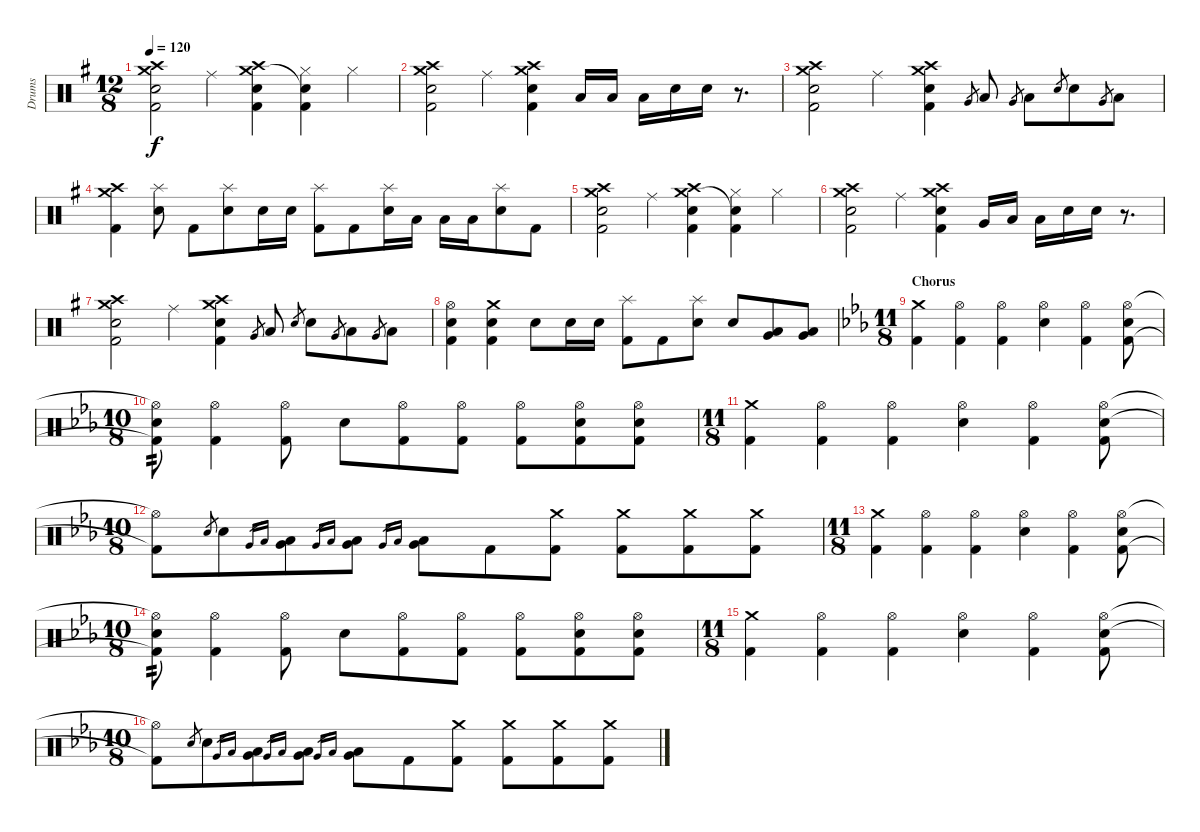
\track ("Drums" "Drums") {instrument percussion}
\staff {score}
\articulation defaults
\ts (12 8)
\tempo 120
\clef neutral
\ks g
("Crash high (hit)" "Crash medium (hit)" "Electric Snare (hit)" "Kick (hit) 2").2{dy f} "Ride (middle)".4 ("Crash high (hit)" "Crash medium (hit)" "Electric Snare (hit)" "Kick (hit) 2").4 ("Hi-Hat (closed)" "Electric Snare (hit)"{t} "Kick (hit) 2").4 "Hi-Hat (closed)".4 |
("Crash high (hit)" "Crash medium (hit)" "Electric Snare (hit)" "Kick (hit) 2").2 "Ride (middle)".4 ("Crash high (hit)" "Crash medium (hit)" "Electric Snare (hit)" "Kick (hit) 2").4 "Low Tom (hit)".16 "Low Tom (hit)".16 "Low Tom (hit)".16 "Electric Snare (hit)".16 "Electric Snare (hit)".16 r.8{d} |
("Crash high (hit)" "Crash medium (hit)" "Electric Snare (hit)" "Kick (hit) 2").2 "Ride (middle)".4 ("Crash high (hit)" "Crash medium (hit)" "Electric Snare (hit)" "Kick (hit) 2").4 "Very Low Tom (hit)".8{gr} "Low Tom (hit)".8 "Very Low Tom (hit)".8{gr} "Low Tom (hit)".8 "Electric Snare (hit)".8{gr} "Electric Snare (hit)".8 "Very Low Tom (hit)".8{gr} "Low Tom (hit)".8 |
("Crash medium (hit)" "Crash high (hit)" "Kick (hit) 2").4 ("Splash (hit)" "Electric Snare (hit)").8 "Kick (hit) 2".8 ("Splash (hit)" "Electric Snare (hit)").8 "Electric Snare (hit)".16 "Electric Snare (hit)".16 ("Splash (hit)" "Kick (hit) 2").8 "Kick (hit) 2".8 ("Splash (hit)" "Electric Snare (hit)").16 "Low Tom (hit)".16 "Low Tom (hit)".16 "Low Tom (hit)".16 ("Splash (hit)" "Electric Snare (hit)").8 "Kick (hit) 2".8 |
("Crash high (hit)" "Crash medium (hit)" "Electric Snare (hit)" "Kick (hit) 2").2 "Ride (middle)".4 ("Crash high (hit)" "Crash medium (hit)" "Electric Snare (hit)" "Kick (hit) 2").4 ("Hi-Hat (closed)" "Electric Snare (hit)"{t} "Kick (hit) 2").4 "Hi-Hat (closed)".4 |
("Crash high (hit)" "Crash medium (hit)" "Electric Snare (hit)" "Kick (hit) 2").2 "Ride (middle)".4 ("Crash high (hit)" "Crash medium (hit)" "Electric Snare (hit)" "Kick (hit) 2").4 "Very Low Tom (hit)".16 "Low Tom (hit)".16 "Low Tom (hit)".16 "Electric Snare (hit)".16 "Electric Snare (hit)".16 r.8{d} |
("Crash high (hit)" "Crash medium (hit)" "Electric Snare (hit)" "Kick (hit) 2").2 "Ride (middle)".4 ("Crash high (hit)" "Crash medium (hit)" "Electric Snare (hit)" "Kick (hit) 2").4 "Very Low Tom (hit)".8{gr} "Low Tom (hit)".8 "Electric Snare (hit)".8{gr} "Electric Snare (hit)".8 "Very Low Tom (hit)".8{gr} "Low Tom (hit)".8 "Very Low Tom (hit)".8{gr} "Low Tom (hit)".8 |
("Hi-Hat (open)" "Electric Snare (hit)" "Kick (hit) 2").4 ("Crash medium (hit)" "Electric Snare (hit)" "Kick (hit) 2").4 "Electric Snare (hit)".8 "Electric Snare (hit)".16 "Electric Snare (hit)".16 ("Splash (hit)" "Kick (hit) 2").8 "Kick (hit) 2".8 ("Splash (hit)" "Electric Snare (hit)").8 "Electric Snare (hit)".8 ("Low Tom (hit)" "Very Low Tom (hit)").8 ("Low Tom (hit)" "Very Low Tom (hit)").8 |
\ts (11 8)
\section ("" "Chorus")
\ks eb
("Crash medium (hit)" "Kick (hit) 2").4 ("Hi-Hat (open)" "Kick (hit) 2").4 ("Hi-Hat (open)" "Kick (hit) 2").4 ("Hi-Hat (open)" "Electric Snare (hit)").4 ("Hi-Hat (open)" "Kick (hit) 2").4 ("Hi-Hat (open)" "Electric Snare (hit)" "Kick (hit) 2").8 |
\ts (10 8)
("Hi-Hat (open)"{t} "Electric Snare (hit)" "Kick (hit) 2"{t}).8{tp 2} ("Hi-Hat (open)" "Kick (hit) 2").4 ("Hi-Hat (open)" "Kick (hit) 2").8 "Electric Snare (hit)".8 ("Hi-Hat (open)" "Kick (hit) 2").8 ("Hi-Hat (open)" "Kick (hit) 2").8 ("Hi-Hat (open)" "Kick (hit) 2").8 ("Hi-Hat (open)" "Electric Snare (hit)" "Kick (hit) 2").8 ("Hi-Hat (open)" "Electric Snare (hit)" "Kick (hit) 2").8 |
\ts (11 8)
("Crash medium (hit)" "Kick (hit) 2").4 ("Hi-Hat (open)" "Kick (hit) 2").4 ("Hi-Hat (open)" "Kick (hit) 2").4 ("Hi-Hat (open)" "Electric Snare (hit)").4 ("Hi-Hat (open)" "Kick (hit) 2").4 ("Hi-Hat (open)" "Electric Snare (hit)" "Kick (hit) 2").8 |
\ts (10 8)
("Hi-Hat (open)"{t} "Kick (hit) 2"{t}).8 "Electric Snare (hit)".8{gr} "Electric Snare (hit)".8 "Very Low Tom (hit)".16{gr} "Low Tom (hit)".16{gr} ("Low Tom (hit)" "Very Low Tom (hit)").8 "Very Low Tom (hit)".16{gr} "Low Tom (hit)".16{gr} ("Low Tom (hit)" "Very Low Tom (hit)").8 "Very Low Tom (hit)".16{gr} "Low Tom (hit)".16{gr} ("Low Tom (hit)" "Very Low Tom (hit)").8 "Kick (hit) 2".8 ("Crash medium (hit)" "Kick (hit) 2").8 ("Crash medium (hit)" "Kick (hit) 2").8 ("Crash medium (hit)" "Kick (hit) 2").8 ("Crash medium (hit)" "Kick (hit) 2").8 |
\ts (11 8)
("Crash medium (hit)" "Kick (hit) 2").4 ("Hi-Hat (open)" "Kick (hit) 2").4 ("Hi-Hat (open)" "Kick (hit) 2").4 ("Hi-Hat (open)" "Electric Snare (hit)").4 ("Hi-Hat (open)" "Kick (hit) 2").4 ("Hi-Hat (open)" "Electric Snare (hit)" "Kick (hit) 2").8 |
\ts (10 8)
("Hi-Hat (open)"{t} "Electric Snare (hit)" "Kick (hit) 2"{t}).8{tp 2} ("Hi-Hat (open)" "Kick (hit) 2").4 ("Hi-Hat (open)" "Kick (hit) 2").8 "Electric Snare (hit)".8 ("Hi-Hat (open)" "Kick (hit) 2").8 ("Hi-Hat (open)" "Kick (hit) 2").8 ("Hi-Hat (open)" "Kick (hit) 2").8 ("Hi-Hat (open)" "Electric Snare (hit)" "Kick (hit) 2").8 ("Hi-Hat (open)" "Electric Snare (hit)" "Kick (hit) 2").8 |
\ts (11 8)
("Crash medium (hit)" "Kick (hit) 2").4 ("Hi-Hat (open)" "Kick (hit) 2").4 ("Hi-Hat (open)" "Kick (hit) 2").4 ("Hi-Hat (open)" "Electric Snare (hit)").4 ("Hi-Hat (open)" "Kick (hit) 2").4 ("Hi-Hat (open)" "Electric Snare (hit)" "Kick (hit) 2").8 |
\ts (10 8)
("Hi-Hat (open)"{t} "Kick (hit) 2"{t}).8 "Electric Snare (hit)".8{gr} "Electric Snare (hit)".8 "Very Low Tom (hit)".16{gr} "Low Tom (hit)".16{gr} ("Low Tom (hit)" "Very Low Tom (hit)").8 "Very Low Tom (hit)".16{gr} "Low Tom (hit)".16{gr} ("Low Tom (hit)" "Very Low Tom (hit)").8 "Very Low Tom (hit)".16{gr} "Low Tom (hit)".16{gr} ("Low Tom (hit)" "Very Low Tom (hit)").8 "Kick (hit) 2".8 ("Crash medium (hit)" "Kick (hit) 2").8 ("Crash medium (hit)" "Kick (hit) 2").8 ("Crash medium (hit)" "Kick (hit) 2").8 ("Crash medium (hit)" "Kick (hit) 2").8
